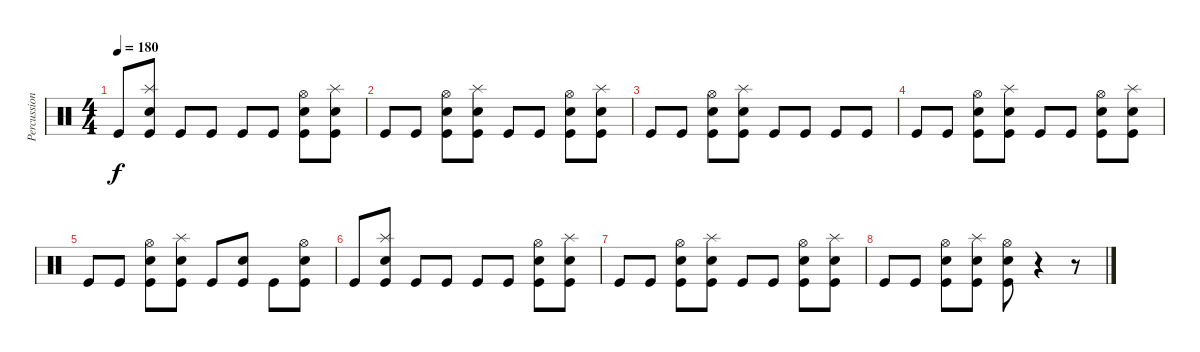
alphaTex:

\track ("Percussions" "Percussion") {instrument percussion}
\staff {score}
\articulation defaults
\ts (4 4)
\tempo 180
\clef neutral
\ks c "Kick (hit)".8{dy f}
("Splash (hit)" "Electric Snare (hit)" "Kick (hit)").8 "Kick (hit)".8 "Kick (hit)".8 "Kick (hit)".8 "Kick (hit)".8 ("Hi-Hat (open)" "Electric Snare (hit)" "Kick (hit)").8 ("Splash (hit)" "Electric Snare (hit)" "Kick (hit)").8 |
"Kick (hit)".8 "Kick (hit)".8 ("Hi-Hat (open)" "Electric Snare (hit)" "Kick (hit)").8 ("Splash (hit)" "Electric Snare (hit)" "Kick (hit)").8 "Kick (hit)".8 "Kick (hit)".8 ("Hi-Hat (open)" "Electric Snare (hit)" "Kick (hit)").8 ("Splash (hit)" "Electric Snare (hit)" "Kick (hit)").8 |
"Kick (hit)".8 "Kick (hit)".8 ("Hi-Hat (open)" "Electric Snare (hit)" "Kick (hit)").8 ("Splash (hit)" "Electric Snare (hit)" "Kick (hit)").8 "Kick (hit)".8 "Kick (hit)".8 "Kick (hit)".8 "Kick (hit)".8 |
"Kick (hit)".8 "Kick (hit)".8 ("Hi-Hat (open)" "Electric Snare (hit)" "Kick (hit)").8 ("Splash (hit)" "Electric Snare (hit)" "Kick (hit)").8 "Kick (hit)".8 "Kick (hit)".8 ("Hi-Hat (open)" "Electric Snare (hit)" "Kick (hit)").8 ("Splash (hit)" "Electric Snare (hit)" "Kick (hit)").8 |
"Kick (hit)".8 "Kick (hit)".8 ("Hi-Hat (open)" "Electric Snare (hit)" "Kick (hit)").8 ("Splash (hit)" "Electric Snare (hit)" "Kick (hit)").8 "Kick (hit)".8 ("Electric Snare (hit)" "Kick (hit)").8 "Kick (hit)".8 ("Hi-Hat (open)" "Electric Snare (hit)" "Kick (hit)").8 |
"Kick (hit)".8 ("Splash (hit)" "Electric Snare (hit)" "Kick (hit)").8 "Kick (hit)".8 "Kick (hit)".8 "Kick (hit)".8 "Kick (hit)".8 ("Hi-Hat (open)" "Electric Snare (hit)" "Kick (hit)").8 ("Splash (hit)" "Electric Snare (hit)" "Kick (hit)").8 |
"Kick (hit)".8 "Kick (hit)".8 ("Hi-Hat (open)" "Electric Snare (hit)" "Kick (hit)").8 ("Splash (hit)" "Electric Snare (hit)" "Kick (hit)").8 "Kick (hit)".8 "Kick (hit)".8 ("Hi-Hat (open)" "Electric Snare (hit)" "Kick (hit)").8 ("Splash (hit)" "Electric Snare (hit)" "Kick (hit)").8 |
"Kick (hit)".8 "Kick (hit)".8 ("Hi-Hat (open)" "Electric Snare (hit)" "Kick (hit)").8 ("Splash (hit)" "Electric Snare (hit)" "Kick (hit)").8 ("Hi-Hat (open)" "Electric Snare (hit)" "Kick (hit)").8 r.4 r.8
